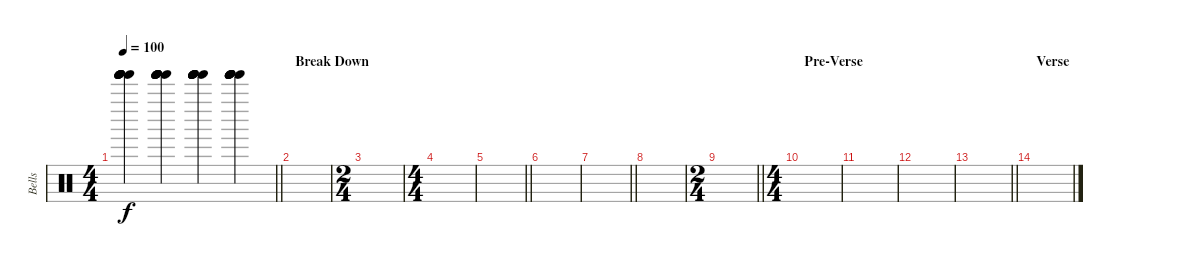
\track ("Bells" "Bells") {instrument percussion}
\staff {score}
\articulation defaults
\ts (4 4)
\tempo 100
\clef neutral
\barLineRight lightlight
\ks c
("Tinkle Bell (hit)" "Tinkle Bell (hit)" "Tinkle Bell (hit)" "Tinkle Bell (hit)" "Tinkle Bell (hit)" "Tinkle Bell (hit)").4{dy f} ("Tinkle Bell (hit)" "Tinkle Bell (hit)" "Tinkle Bell (hit)" "Tinkle Bell (hit)" "Tinkle Bell (hit)" "Tinkle Bell (hit)").4 ("Tinkle Bell (hit)" "Tinkle Bell (hit)" "Tinkle Bell (hit)" "Tinkle Bell (hit)" "Tinkle Bell (hit)" "Tinkle Bell (hit)").4 ("Tinkle Bell (hit)" "Tinkle Bell (hit)" "Tinkle Bell (hit)" "Tinkle Bell (hit)" "Tinkle Bell (hit)" "Tinkle Bell (hit)").4 |
\section ("" "Break Down")
|
\ts (2 4)
|
\ts (4 4)
|
\barLineRight lightlight
|
|
\barLineRight lightlight
|
|
\ts (2 4)
\barLineRight lightlight
|
\ts (4 4)
\section ("" "Pre-Verse")
|
|
|
\barLineRight lightlight
|
\section ("" "Verse")
